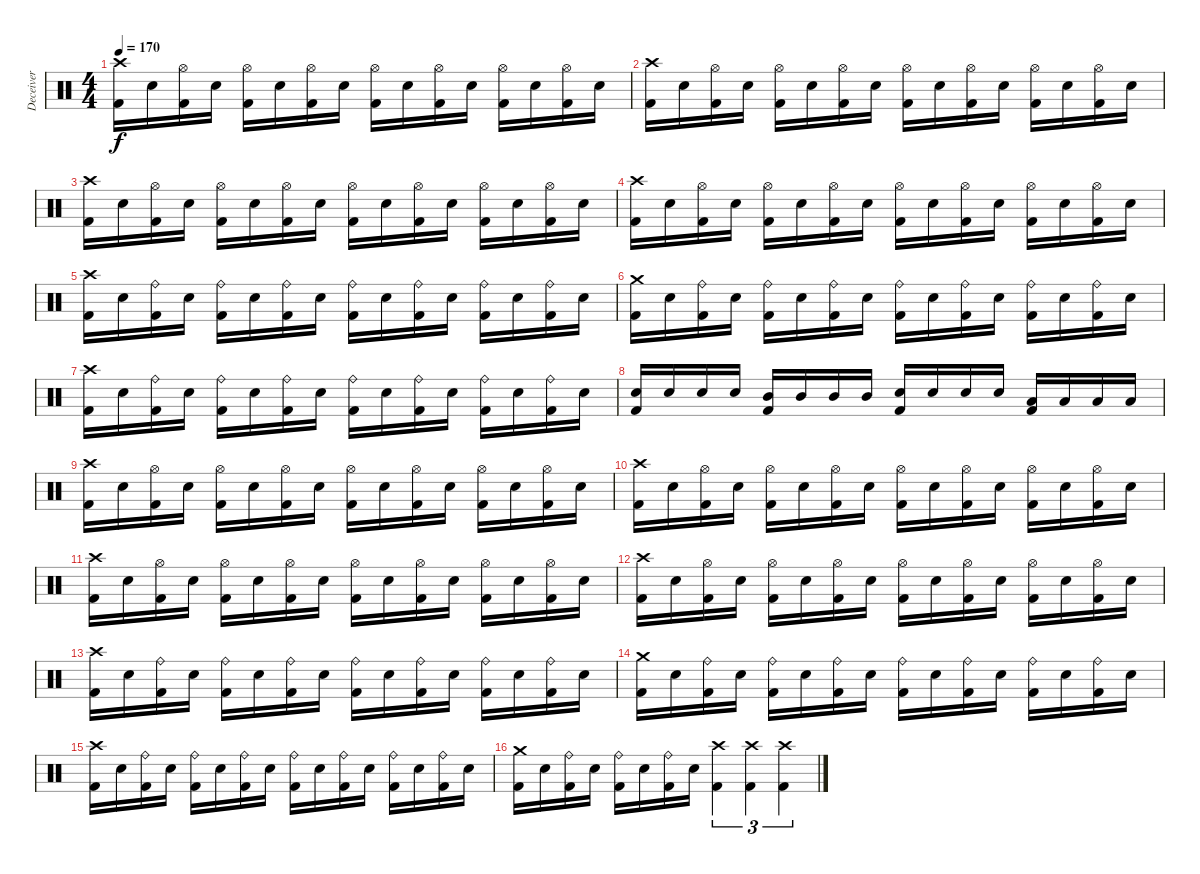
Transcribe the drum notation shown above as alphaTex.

\track ("Deceiver" "Deceiver") {instrument percussion}
\staff {score}
\articulation defaults
\ts (4 4)
\tempo 170
\clef neutral
\ks c
("Crash high (hit)" "Kick (hit) 2").16{dy f} "Electric Snare (hit)".16 ("Hi-Hat (open)" "Kick (hit) 2").16 "Electric Snare (hit)".16 ("Hi-Hat (open)" "Kick (hit) 2").16 "Electric Snare (hit)".16 ("Hi-Hat (open)" "Kick (hit) 2").16 "Electric Snare (hit)".16 ("Hi-Hat (open)" "Kick (hit) 2").16 "Electric Snare (hit)".16 ("Hi-Hat (open)" "Kick (hit) 2").16 "Electric Snare (hit)".16 ("Hi-Hat (open)" "Kick (hit) 2").16 "Electric Snare (hit)".16 ("Hi-Hat (open)" "Kick (hit) 2").16 "Electric Snare (hit)".16 |
("Crash high (hit)" "Kick (hit) 2").16 "Electric Snare (hit)".16 ("Hi-Hat (open)" "Kick (hit) 2").16 "Electric Snare (hit)".16 ("Hi-Hat (open)" "Kick (hit) 2").16 "Electric Snare (hit)".16 ("Hi-Hat (open)" "Kick (hit) 2").16 "Electric Snare (hit)".16 ("Hi-Hat (open)" "Kick (hit) 2").16 "Electric Snare (hit)".16 ("Hi-Hat (open)" "Kick (hit) 2").16 "Electric Snare (hit)".16 ("Hi-Hat (open)" "Kick (hit) 2").16 "Electric Snare (hit)".16 ("Hi-Hat (open)" "Kick (hit) 2").16 "Electric Snare (hit)".16 |
("Crash high (hit)" "Kick (hit) 2").16 "Electric Snare (hit)".16 ("Hi-Hat (open)" "Kick (hit) 2").16 "Electric Snare (hit)".16 ("Hi-Hat (open)" "Kick (hit) 2").16 "Electric Snare (hit)".16 ("Hi-Hat (open)" "Kick (hit) 2").16 "Electric Snare (hit)".16 ("Hi-Hat (open)" "Kick (hit) 2").16 "Electric Snare (hit)".16 ("Hi-Hat (open)" "Kick (hit) 2").16 "Electric Snare (hit)".16 ("Hi-Hat (open)" "Kick (hit) 2").16 "Electric Snare (hit)".16 ("Hi-Hat (open)" "Kick (hit) 2").16 "Electric Snare (hit)".16 |
("Crash high (hit)" "Kick (hit) 2").16 "Electric Snare (hit)".16 ("Hi-Hat (open)" "Kick (hit) 2").16 "Electric Snare (hit)".16 ("Hi-Hat (open)" "Kick (hit) 2").16 "Electric Snare (hit)".16 ("Hi-Hat (open)" "Kick (hit) 2").16 "Electric Snare (hit)".16 ("Hi-Hat (open)" "Kick (hit) 2").16 "Electric Snare (hit)".16 ("Hi-Hat (open)" "Kick (hit) 2").16 "Electric Snare (hit)".16 ("Hi-Hat (open)" "Kick (hit) 2").16 "Electric Snare (hit)".16 ("Hi-Hat (open)" "Kick (hit) 2").16 "Electric Snare (hit)".16 |
("Crash high (hit)" "Kick (hit) 2").16 "Electric Snare (hit)".16 ("Ride (bell)" "Kick (hit) 2").16 "Electric Snare (hit)".16 ("Ride (bell)" "Kick (hit) 2").16 "Electric Snare (hit)".16 ("Ride (bell)" "Kick (hit) 2").16 "Electric Snare (hit)".16 ("Ride (bell)" "Kick (hit) 2").16 "Electric Snare (hit)".16 ("Ride (bell)" "Kick (hit) 2").16 "Electric Snare (hit)".16 ("Ride (bell)" "Kick (hit) 2").16 "Electric Snare (hit)".16 ("Ride (bell)" "Kick (hit) 2").16 "Electric Snare (hit)".16 |
("Crash medium (hit)" "Kick (hit) 2").16 "Electric Snare (hit)".16 ("Ride (bell)" "Kick (hit) 2").16 "Electric Snare (hit)".16 ("Ride (bell)" "Kick (hit) 2").16 "Electric Snare (hit)".16 ("Ride (bell)" "Kick (hit) 2").16 "Electric Snare (hit)".16 ("Ride (bell)" "Kick (hit) 2").16 "Electric Snare (hit)".16 ("Ride (bell)" "Kick (hit) 2").16 "Electric Snare (hit)".16 ("Ride (bell)" "Kick (hit) 2").16 "Electric Snare (hit)".16 ("Ride (bell)" "Kick (hit) 2").16 "Electric Snare (hit)".16 |
("Crash high (hit)" "Kick (hit) 2").16 "Electric Snare (hit)".16 ("Ride (bell)" "Kick (hit) 2").16 "Electric Snare (hit)".16 ("Ride (bell)" "Kick (hit) 2").16 "Electric Snare (hit)".16 ("Ride (bell)" "Kick (hit) 2").16 "Electric Snare (hit)".16 ("Ride (bell)" "Kick (hit) 2").16 "Electric Snare (hit)".16 ("Ride (bell)" "Kick (hit) 2").16 "Electric Snare (hit)".16 ("Ride (bell)" "Kick (hit) 2").16 "Electric Snare (hit)".16 ("Ride (bell)" "Kick (hit) 2").16 "Electric Snare (hit)".16 |
("Electric Snare (hit)" "Kick (hit) 2").16 "Electric Snare (hit)".16 "Electric Snare (hit)".16 "Electric Snare (hit)".16 ("Mid Tom (hit)" "Kick (hit) 2").16 "Mid Tom (hit)".16 "Mid Tom (hit)".16 "Mid Tom (hit)".16 ("Electric Snare (hit)" "Kick (hit) 2").16 "Electric Snare (hit)".16 "Electric Snare (hit)".16 "Electric Snare (hit)".16 ("Low Tom (hit)" "Kick (hit) 2").16 "Low Tom (hit)".16 "Low Tom (hit)".16 "Low Tom (hit)".16 |
("Crash high (hit)" "Kick (hit) 2").16 "Electric Snare (hit)".16 ("Hi-Hat (open)" "Kick (hit) 2").16 "Electric Snare (hit)".16 ("Hi-Hat (open)" "Kick (hit) 2").16 "Electric Snare (hit)".16 ("Hi-Hat (open)" "Kick (hit) 2").16 "Electric Snare (hit)".16 ("Hi-Hat (open)" "Kick (hit) 2").16 "Electric Snare (hit)".16 ("Hi-Hat (open)" "Kick (hit) 2").16 "Electric Snare (hit)".16 ("Hi-Hat (open)" "Kick (hit) 2").16 "Electric Snare (hit)".16 ("Hi-Hat (open)" "Kick (hit) 2").16 "Electric Snare (hit)".16 |
("Crash high (hit)" "Kick (hit) 2").16 "Electric Snare (hit)".16 ("Hi-Hat (open)" "Kick (hit) 2").16 "Electric Snare (hit)".16 ("Hi-Hat (open)" "Kick (hit) 2").16 "Electric Snare (hit)".16 ("Hi-Hat (open)" "Kick (hit) 2").16 "Electric Snare (hit)".16 ("Hi-Hat (open)" "Kick (hit) 2").16 "Electric Snare (hit)".16 ("Hi-Hat (open)" "Kick (hit) 2").16 "Electric Snare (hit)".16 ("Hi-Hat (open)" "Kick (hit) 2").16 "Electric Snare (hit)".16 ("Hi-Hat (open)" "Kick (hit) 2").16 "Electric Snare (hit)".16 |
("Crash high (hit)" "Kick (hit) 2").16 "Electric Snare (hit)".16 ("Hi-Hat (open)" "Kick (hit) 2").16 "Electric Snare (hit)".16 ("Hi-Hat (open)" "Kick (hit) 2").16 "Electric Snare (hit)".16 ("Hi-Hat (open)" "Kick (hit) 2").16 "Electric Snare (hit)".16 ("Hi-Hat (open)" "Kick (hit) 2").16 "Electric Snare (hit)".16 ("Hi-Hat (open)" "Kick (hit) 2").16 "Electric Snare (hit)".16 ("Hi-Hat (open)" "Kick (hit) 2").16 "Electric Snare (hit)".16 ("Hi-Hat (open)" "Kick (hit) 2").16 "Electric Snare (hit)".16 |
("Crash high (hit)" "Kick (hit) 2").16 "Electric Snare (hit)".16 ("Hi-Hat (open)" "Kick (hit) 2").16 "Electric Snare (hit)".16 ("Hi-Hat (open)" "Kick (hit) 2").16 "Electric Snare (hit)".16 ("Hi-Hat (open)" "Kick (hit) 2").16 "Electric Snare (hit)".16 ("Hi-Hat (open)" "Kick (hit) 2").16 "Electric Snare (hit)".16 ("Hi-Hat (open)" "Kick (hit) 2").16 "Electric Snare (hit)".16 ("Hi-Hat (open)" "Kick (hit) 2").16 "Electric Snare (hit)".16 ("Hi-Hat (open)" "Kick (hit) 2").16 "Electric Snare (hit)".16 |
("Crash high (hit)" "Kick (hit) 2").16 "Electric Snare (hit)".16 ("Ride (bell)" "Kick (hit) 2").16 "Electric Snare (hit)".16 ("Ride (bell)" "Kick (hit) 2").16 "Electric Snare (hit)".16 ("Ride (bell)" "Kick (hit) 2").16 "Electric Snare (hit)".16 ("Ride (bell)" "Kick (hit) 2").16 "Electric Snare (hit)".16 ("Ride (bell)" "Kick (hit) 2").16 "Electric Snare (hit)".16 ("Ride (bell)" "Kick (hit) 2").16 "Electric Snare (hit)".16 ("Ride (bell)" "Kick (hit) 2").16 "Electric Snare (hit)".16 |
("Crash medium (hit)" "Kick (hit) 2").16 "Electric Snare (hit)".16 ("Ride (bell)" "Kick (hit) 2").16 "Electric Snare (hit)".16 ("Ride (bell)" "Kick (hit) 2").16 "Electric Snare (hit)".16 ("Ride (bell)" "Kick (hit) 2").16 "Electric Snare (hit)".16 ("Ride (bell)" "Kick (hit) 2").16 "Electric Snare (hit)".16 ("Ride (bell)" "Kick (hit) 2").16 "Electric Snare (hit)".16 ("Ride (bell)" "Kick (hit) 2").16 "Electric Snare (hit)".16 ("Ride (bell)" "Kick (hit) 2").16 "Electric Snare (hit)".16 |
("Crash high (hit)" "Kick (hit) 2").16 "Electric Snare (hit)".16 ("Ride (bell)" "Kick (hit) 2").16 "Electric Snare (hit)".16 ("Ride (bell)" "Kick (hit) 2").16 "Electric Snare (hit)".16 ("Ride (bell)" "Kick (hit) 2").16 "Electric Snare (hit)".16 ("Ride (bell)" "Kick (hit) 2").16 "Electric Snare (hit)".16 ("Ride (bell)" "Kick (hit) 2").16 "Electric Snare (hit)".16 ("Ride (bell)" "Kick (hit) 2").16 "Electric Snare (hit)".16 ("Ride (bell)" "Kick (hit) 2").16 "Electric Snare (hit)".16 |
("Crash medium (hit)" "Kick (hit) 2").16 "Electric Snare (hit)".16 ("Ride (bell)" "Kick (hit) 2").16 "Electric Snare (hit)".16 ("Ride (bell)" "Kick (hit) 2").16 "Electric Snare (hit)".16 ("Ride (bell)" "Kick (hit) 2").16 "Electric Snare (hit)".16 ("Crash high (hit)" "Kick (hit) 2").4{tu (3 2)} ("Crash high (hit)" "Kick (hit) 2").4{tu (3 2)} ("Crash high (hit)" "Kick (hit) 2").4{tu (3 2)}
